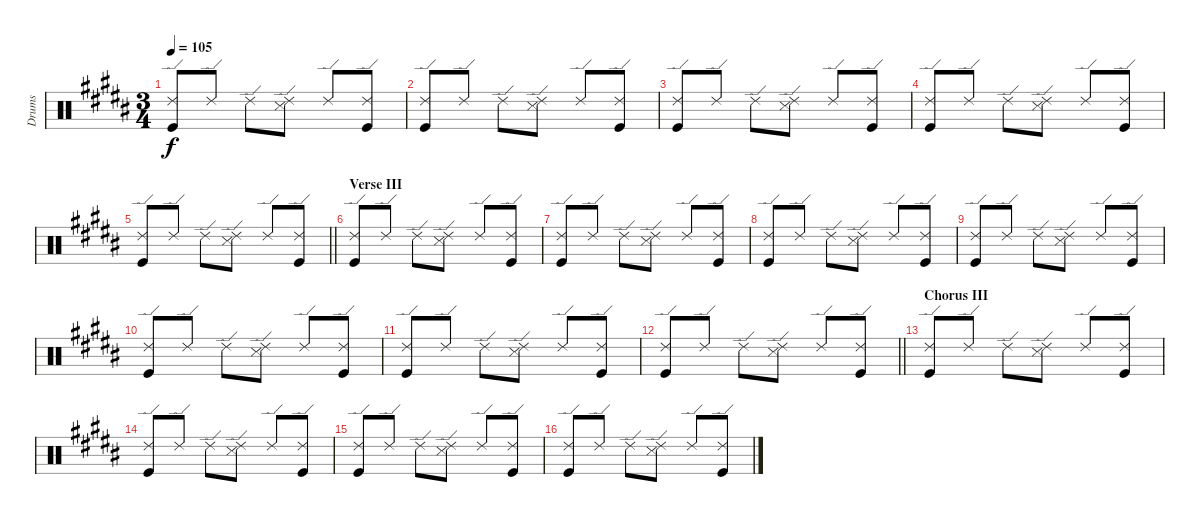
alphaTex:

\track ("Drums" "Drums") {instrument percussion}
\staff {score}
\articulation defaults
\ts (3 4)
\tempo 105
\clef neutral
\ks b
("Ride (edge) 2" "Kick (hit)").8{dy f} "Ride (edge) 2".8 "Ride (edge) 2".8 ("Ride (edge) 2" "Snare (side stick) 3").8 "Ride (edge) 2".8 ("Ride (edge) 2" "Kick (hit)").8 |
("Ride (edge) 2" "Kick (hit)").8 "Ride (edge) 2".8 "Ride (edge) 2".8 ("Ride (edge) 2" "Snare (side stick) 3").8 "Ride (edge) 2".8 ("Ride (edge) 2" "Kick (hit)").8 |
("Ride (edge) 2" "Kick (hit)").8 "Ride (edge) 2".8 "Ride (edge) 2".8 ("Ride (edge) 2" "Snare (side stick) 3").8 "Ride (edge) 2".8 ("Ride (edge) 2" "Kick (hit)").8 |
("Ride (edge) 2" "Kick (hit)").8 "Ride (edge) 2".8 "Ride (edge) 2".8 ("Ride (edge) 2" "Snare (side stick) 3").8 "Ride (edge) 2".8 ("Ride (edge) 2" "Kick (hit)").8 |
\barLineRight lightlight
("Ride (edge) 2" "Kick (hit)").8 "Ride (edge) 2".8 "Ride (edge) 2".8 ("Ride (edge) 2" "Snare (side stick) 3").8 "Ride (edge) 2".8 ("Ride (edge) 2" "Kick (hit)").8 |
\section ("" "Verse III")
("Ride (edge) 2" "Kick (hit)").8 "Ride (edge) 2".8 "Ride (edge) 2".8 ("Ride (edge) 2" "Snare (side stick) 3").8 "Ride (edge) 2".8 ("Ride (edge) 2" "Kick (hit)").8 |
("Ride (edge) 2" "Kick (hit)").8 "Ride (edge) 2".8 "Ride (edge) 2".8 ("Ride (edge) 2" "Snare (side stick) 3").8 "Ride (edge) 2".8 ("Ride (edge) 2" "Kick (hit)").8 |
("Ride (edge) 2" "Kick (hit)").8 "Ride (edge) 2".8 "Ride (edge) 2".8 ("Ride (edge) 2" "Snare (side stick) 3").8 "Ride (edge) 2".8 ("Ride (edge) 2" "Kick (hit)").8 |
("Ride (edge) 2" "Kick (hit)").8 "Ride (edge) 2".8 "Ride (edge) 2".8 ("Ride (edge) 2" "Snare (side stick) 3").8 "Ride (edge) 2".8 ("Ride (edge) 2" "Kick (hit)").8 |
("Ride (edge) 2" "Kick (hit)").8 "Ride (edge) 2".8 "Ride (edge) 2".8 ("Ride (edge) 2" "Snare (side stick) 3").8 "Ride (edge) 2".8 ("Ride (edge) 2" "Kick (hit)").8 |
("Ride (edge) 2" "Kick (hit)").8 "Ride (edge) 2".8 "Ride (edge) 2".8 ("Ride (edge) 2" "Snare (side stick) 3").8 "Ride (edge) 2".8 ("Ride (edge) 2" "Kick (hit)").8 |
\barLineRight lightlight
("Ride (edge) 2" "Kick (hit)").8 "Ride (edge) 2".8 "Ride (edge) 2".8 ("Ride (edge) 2" "Snare (side stick) 3").8 "Ride (edge) 2".8 ("Ride (edge) 2" "Kick (hit)").8 |
\section ("" "Chorus III")
("Ride (edge) 2" "Kick (hit)").8 "Ride (edge) 2".8 "Ride (edge) 2".8 ("Ride (edge) 2" "Snare (side stick) 3").8 "Ride (edge) 2".8 ("Ride (edge) 2" "Kick (hit)").8 |
("Ride (edge) 2" "Kick (hit)").8 "Ride (edge) 2".8 "Ride (edge) 2".8 ("Ride (edge) 2" "Snare (side stick) 3").8 "Ride (edge) 2".8 ("Ride (edge) 2" "Kick (hit)").8 |
("Ride (edge) 2" "Kick (hit)").8 "Ride (edge) 2".8 "Ride (edge) 2".8 ("Ride (edge) 2" "Snare (side stick) 3").8 "Ride (edge) 2".8 ("Ride (edge) 2" "Kick (hit)").8 |
("Ride (edge) 2" "Kick (hit)").8 "Ride (edge) 2".8 "Ride (edge) 2".8 ("Ride (edge) 2" "Snare (side stick) 3").8 "Ride (edge) 2".8 ("Ride (edge) 2" "Kick (hit)").8
